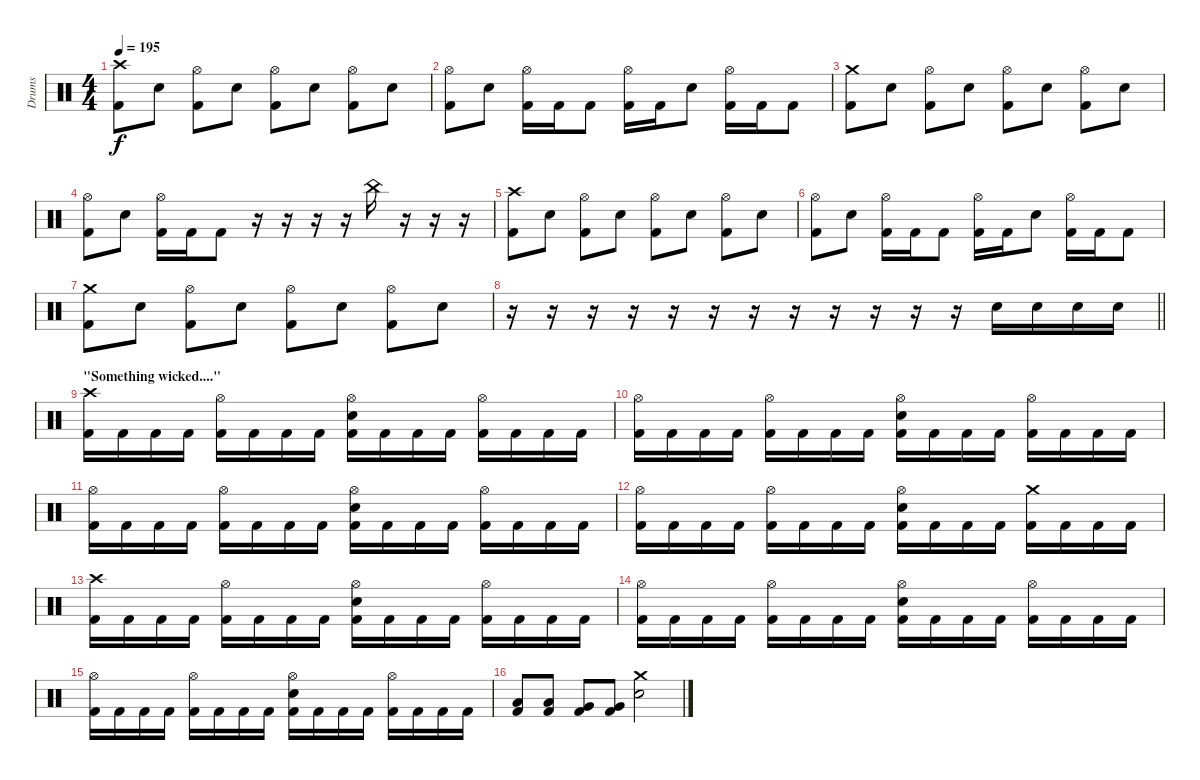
\track ("Drums" "Drums") {instrument percussion}
\staff {score}
\articulation defaults
\ts (4 4)
\section ("" "")
\tempo 195
\clef neutral
\ks c
("Crash high (hit)" "Kick (hit) 2").8{dy f} "Snare (hit) 2".8 ("Hi-Hat (open)" "Kick (hit) 2").8 "Snare (hit) 2".8 ("Hi-Hat (open)" "Kick (hit) 2").8 "Snare (hit) 2".8 ("Hi-Hat (open)" "Kick (hit) 2").8 "Snare (hit) 2".8 |
("Hi-Hat (open)" "Kick (hit) 2").8 "Snare (hit) 2".8 ("Hi-Hat (open)" "Kick (hit) 2").16 "Kick (hit) 2".16 "Kick (hit) 2".8 ("Hi-Hat (open)" "Kick (hit) 2").16 "Kick (hit) 2".16 "Snare (hit) 2".8 ("Hi-Hat (open)" "Kick (hit) 2").16 "Kick (hit) 2".16 "Kick (hit) 2".8 |
("Crash medium (hit)" "Kick (hit) 2").8 "Snare (hit) 2".8 ("Hi-Hat (open)" "Kick (hit) 2").8 "Snare (hit) 2".8 ("Hi-Hat (open)" "Kick (hit) 2").8 "Snare (hit) 2".8 ("Hi-Hat (open)" "Kick (hit) 2").8 "Snare (hit) 2".8 |
("Hi-Hat (open)" "Kick (hit) 2").8 "Snare (hit) 2".8 ("Hi-Hat (open)" "Kick (hit) 2").16 "Kick (hit) 2".16 "Kick (hit) 2".8 r.16 r.16 r.16 r.16 "China (hit)".16 r.16 r.16 r.16 |
("Crash high (hit)" "Kick (hit) 2").8 "Snare (hit) 2".8 ("Hi-Hat (open)" "Kick (hit) 2").8 "Snare (hit) 2".8 ("Hi-Hat (open)" "Kick (hit) 2").8 "Snare (hit) 2".8 ("Hi-Hat (open)" "Kick (hit) 2").8 "Snare (hit) 2".8 |
("Hi-Hat (open)" "Kick (hit) 2").8 "Snare (hit) 2".8 ("Hi-Hat (open)" "Kick (hit) 2").16 "Kick (hit) 2".16 "Kick (hit) 2".8 ("Hi-Hat (open)" "Kick (hit) 2").16 "Kick (hit) 2".16 "Snare (hit) 2".8 ("Hi-Hat (open)" "Kick (hit) 2").16 "Kick (hit) 2".16 "Kick (hit) 2".8 |
("Crash medium (hit)" "Kick (hit) 2").8 "Snare (hit) 2".8 ("Hi-Hat (open)" "Kick (hit) 2").8 "Snare (hit) 2".8 ("Hi-Hat (open)" "Kick (hit) 2").8 "Snare (hit) 2".8 ("Hi-Hat (open)" "Kick (hit) 2").8 "Snare (hit) 2".8 |
\barLineRight lightlight
r.16 r.16 r.16 r.16 r.16 r.16 r.16 r.16 r.16 r.16 r.16 r.16 "Snare (hit) 2".16 "Snare (hit) 2".16 "Snare (hit) 2".16 "Snare (hit) 2".16 |
\section ("" "\"Something wicked....\"")
("Crash high (hit)" "Kick (hit) 2").16 "Kick (hit) 2".16 "Kick (hit) 2".16 "Kick (hit) 2".16 ("Hi-Hat (open)" "Kick (hit) 2").16 "Kick (hit) 2".16 "Kick (hit) 2".16 "Kick (hit) 2".16 ("Hi-Hat (open)" "Snare (hit) 2" "Kick (hit) 2").16 "Kick (hit) 2".16 "Kick (hit) 2".16 "Kick (hit) 2".16 ("Hi-Hat (open)" "Kick (hit) 2").16 "Kick (hit) 2".16 "Kick (hit) 2".16 "Kick (hit) 2".16 |
("Hi-Hat (open)" "Kick (hit) 2").16 "Kick (hit) 2".16 "Kick (hit) 2".16 "Kick (hit) 2".16 ("Hi-Hat (open)" "Kick (hit) 2").16 "Kick (hit) 2".16 "Kick (hit) 2".16 "Kick (hit) 2".16 ("Hi-Hat (open)" "Snare (hit) 2" "Kick (hit) 2").16 "Kick (hit) 2".16 "Kick (hit) 2".16 "Kick (hit) 2".16 ("Hi-Hat (open)" "Kick (hit) 2").16 "Kick (hit) 2".16 "Kick (hit) 2".16 "Kick (hit) 2".16 |
("Hi-Hat (open)" "Kick (hit) 2").16 "Kick (hit) 2".16 "Kick (hit) 2".16 "Kick (hit) 2".16 ("Hi-Hat (open)" "Kick (hit) 2").16 "Kick (hit) 2".16 "Kick (hit) 2".16 "Kick (hit) 2".16 ("Hi-Hat (open)" "Snare (hit) 2" "Kick (hit) 2").16 "Kick (hit) 2".16 "Kick (hit) 2".16 "Kick (hit) 2".16 ("Hi-Hat (open)" "Kick (hit) 2").16 "Kick (hit) 2".16 "Kick (hit) 2".16 "Kick (hit) 2".16 |
("Hi-Hat (open)" "Kick (hit) 2").16 "Kick (hit) 2".16 "Kick (hit) 2".16 "Kick (hit) 2".16 ("Hi-Hat (open)" "Kick (hit) 2").16 "Kick (hit) 2".16 "Kick (hit) 2".16 "Kick (hit) 2".16 ("Hi-Hat (open)" "Snare (hit) 2" "Kick (hit) 2").16 "Kick (hit) 2".16 "Kick (hit) 2".16 "Kick (hit) 2".16 ("Crash medium (hit)" "Kick (hit) 2").16 "Kick (hit) 2".16 "Kick (hit) 2".16 "Kick (hit) 2".16 |
("Crash high (hit)" "Kick (hit) 2").16 "Kick (hit) 2".16 "Kick (hit) 2".16 "Kick (hit) 2".16 ("Hi-Hat (open)" "Kick (hit) 2").16 "Kick (hit) 2".16 "Kick (hit) 2".16 "Kick (hit) 2".16 ("Hi-Hat (open)" "Snare (hit) 2" "Kick (hit) 2").16 "Kick (hit) 2".16 "Kick (hit) 2".16 "Kick (hit) 2".16 ("Hi-Hat (open)" "Kick (hit) 2").16 "Kick (hit) 2".16 "Kick (hit) 2".16 "Kick (hit) 2".16 |
("Hi-Hat (open)" "Kick (hit) 2").16 "Kick (hit) 2".16 "Kick (hit) 2".16 "Kick (hit) 2".16 ("Hi-Hat (open)" "Kick (hit) 2").16 "Kick (hit) 2".16 "Kick (hit) 2".16 "Kick (hit) 2".16 ("Hi-Hat (open)" "Snare (hit) 2" "Kick (hit) 2").16 "Kick (hit) 2".16 "Kick (hit) 2".16 "Kick (hit) 2".16 ("Hi-Hat (open)" "Kick (hit) 2").16 "Kick (hit) 2".16 "Kick (hit) 2".16 "Kick (hit) 2".16 |
("Hi-Hat (open)" "Kick (hit) 2").16 "Kick (hit) 2".16 "Kick (hit) 2".16 "Kick (hit) 2".16 ("Hi-Hat (open)" "Kick (hit) 2").16 "Kick (hit) 2".16 "Kick (hit) 2".16 "Kick (hit) 2".16 ("Hi-Hat (open)" "Snare (hit) 2" "Kick (hit) 2").16 "Kick (hit) 2".16 "Kick (hit) 2".16 "Kick (hit) 2".16 ("Hi-Hat (open)" "Kick (hit) 2").16 "Kick (hit) 2".16 "Kick (hit) 2".16 "Kick (hit) 2".16 |
("Low Tom (hit)" "Kick (hit) 2").8 ("Low Tom (hit)" "Kick (hit) 2").8 ("Very Low Tom (hit)" "Kick (hit) 2").8 ("Very Low Tom (hit)" "Kick (hit) 2").8 ("Crash medium (hit)" "Snare (hit) 2").2
